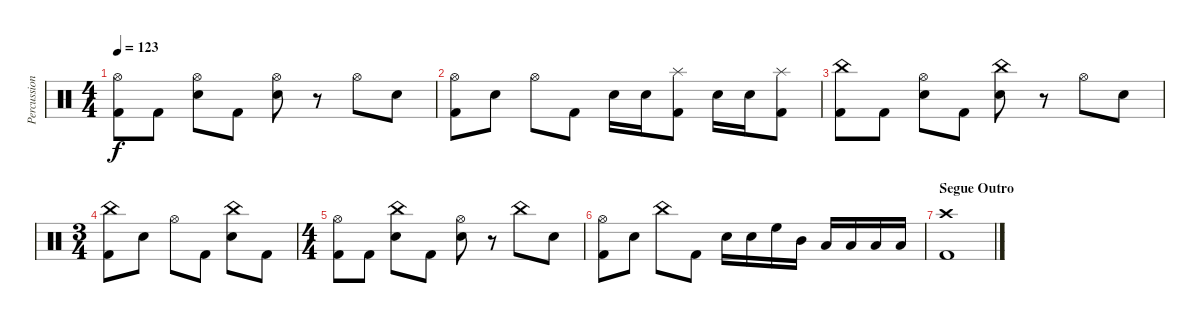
\track ("Percussion" "Percussion") {instrument percussion}
\staff {score}
\articulation defaults
\ts (4 4)
\tempo 123
\clef neutral
\ks c
("Hi-Hat (open)" "Kick (hit) 2").8{dy f} "Kick (hit) 2".8 ("Hi-Hat (open)" "Electric Snare (hit)").8 "Kick (hit) 2".8 ("Hi-Hat (open)" "Electric Snare (hit)").8 r.8 "Hi-Hat (open)".8 "Electric Snare (hit)".8 |
("Hi-Hat (open)" "Kick (hit) 2").8 "Electric Snare (hit)".8 "Hi-Hat (open)".8 "Kick (hit) 2".8 "Electric Snare (hit)".16 "Electric Snare (hit)".16 ("Splash (hit)" "Kick (hit) 2").8 "Electric Snare (hit)".16 "Electric Snare (hit)".16 ("Splash (hit)" "Kick (hit) 2").8 |
("China (hit)" "Kick (hit) 2").8 "Kick (hit) 2".8 ("Hi-Hat (open)" "Electric Snare (hit)").8 "Kick (hit) 2".8 ("China (hit)" "Electric Snare (hit)").8 r.8 "Hi-Hat (open)".8 "Electric Snare (hit)".8 |
\ts (3 4)
("China (hit)" "Kick (hit) 2").8 "Electric Snare (hit)".8 "Hi-Hat (open)".8 "Kick (hit) 2".8 ("China (hit)" "Electric Snare (hit)").8 "Kick (hit) 2".8 |
\ts (4 4)
("Hi-Hat (open)" "Kick (hit) 2").8 "Kick (hit) 2".8 ("China (hit)" "Electric Snare (hit)").8 "Kick (hit) 2".8 ("Hi-Hat (open)" "Electric Snare (hit)").8 r.8 "China (hit)".8 "Electric Snare (hit)".8 |
("Hi-Hat (open)" "Kick (hit) 2").8 "Electric Snare (hit)".8 "China (hit)".8 "Kick (hit) 2".8 "Electric Snare (hit)".16 "Electric Snare (hit)".16 "High Floor Tom (hit)".16 "Mid Tom (hit)".16 "Low Tom (hit)".16 "Low Tom (hit)".16 "Low Floor Tom (hit)".16 "Low Floor Tom (hit)".16 |
\section ("" "Segue Outro")
("Crash high (hit)" "Kick (hit) 2").1
